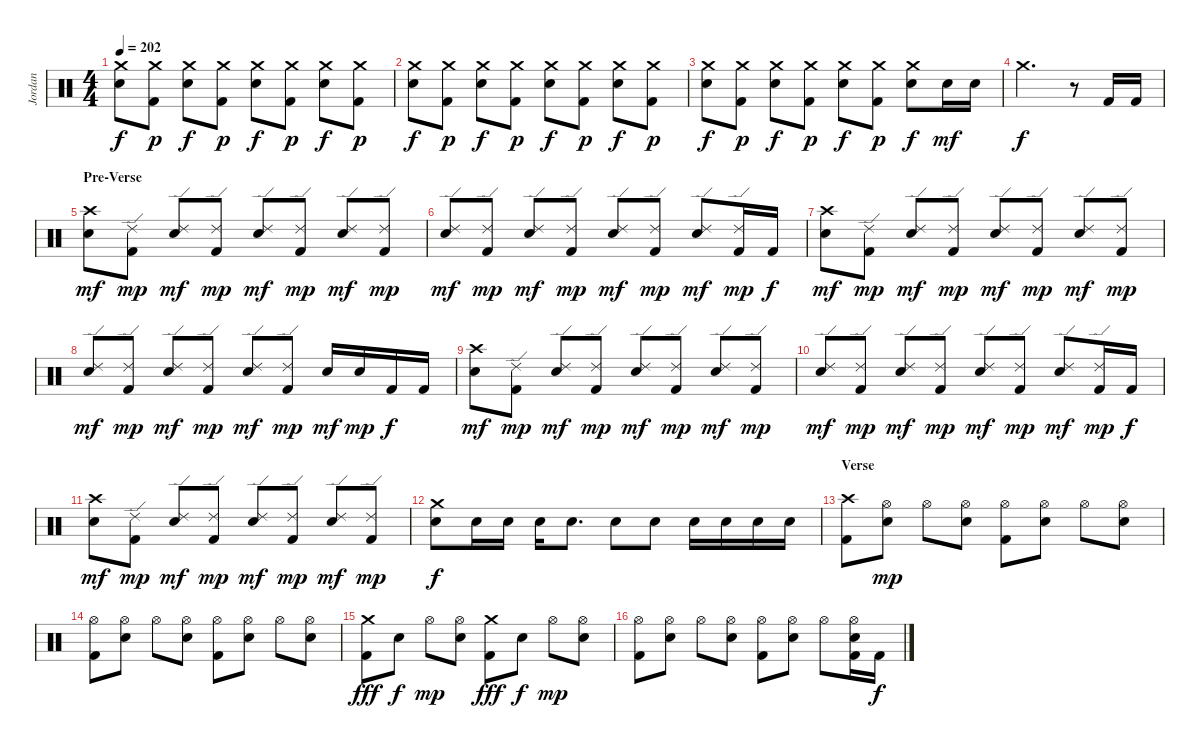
\track ("Jordan" "Jordan") {instrument percussion}
\staff {score}
\articulation defaults
\ts (4 4)
\tempo 202
\clef neutral
\ks c
("Crash medium (hit)" "Electric Snare (hit)").8{dy f} ("Crash medium (hit)" "Kick (hit) 2").8{dy p} ("Crash medium (hit)" "Electric Snare (hit)").8{dy f} ("Crash medium (hit)" "Kick (hit) 2").8{dy p} ("Crash medium (hit)" "Electric Snare (hit)").8{dy f} ("Crash medium (hit)" "Kick (hit) 2").8{dy p} ("Crash medium (hit)" "Electric Snare (hit)").8{dy f} ("Crash medium (hit)" "Kick (hit) 2").8{dy p} |
("Crash medium (hit)" "Electric Snare (hit)").8{dy f} ("Crash medium (hit)" "Kick (hit) 2").8{dy p} ("Crash medium (hit)" "Electric Snare (hit)").8{dy f} ("Crash medium (hit)" "Kick (hit) 2").8{dy p} ("Crash medium (hit)" "Electric Snare (hit)").8{dy f} ("Crash medium (hit)" "Kick (hit) 2").8{dy p} ("Crash medium (hit)" "Electric Snare (hit)").8{dy f} ("Crash medium (hit)" "Kick (hit) 2").8{dy p} |
("Crash medium (hit)" "Electric Snare (hit)").8{dy f} ("Crash medium (hit)" "Kick (hit) 2").8{dy p} ("Crash medium (hit)" "Electric Snare (hit)").8{dy f} ("Crash medium (hit)" "Kick (hit) 2").8{dy p} ("Crash medium (hit)" "Electric Snare (hit)").8{dy f} ("Crash medium (hit)" "Kick (hit) 2").8{dy p} ("Crash medium (hit)" "Electric Snare (hit)").8{dy f} "Electric Snare (hit)".16{dy mf} "Electric Snare (hit)".16 |
"Crash medium (hit)".2{d dy f} r.8 "Kick (hit) 2".16 "Kick (hit) 2".16 |
\section ("" "Pre-Verse")
("Crash high (hit)" "Electric Snare (hit)").8{dy mf} ("Ride (edge) 2" "Kick (hit) 2").8{dy mp} ("Ride (edge) 2" "Electric Snare (hit)").8{dy mf} ("Ride (edge) 2" "Kick (hit) 2").8{dy mp} ("Ride (edge) 2" "Electric Snare (hit)").8{dy mf} ("Ride (edge) 2" "Kick (hit) 2").8{dy mp} ("Ride (edge) 2" "Electric Snare (hit)").8{dy mf} ("Ride (edge) 2" "Kick (hit) 2").8{dy mp} |
("Ride (edge) 2" "Electric Snare (hit)").8{dy mf} ("Ride (edge) 2" "Kick (hit) 2").8{dy mp} ("Ride (edge) 2" "Electric Snare (hit)").8{dy mf} ("Ride (edge) 2" "Kick (hit) 2").8{dy mp} ("Ride (edge) 2" "Electric Snare (hit)").8{dy mf} ("Ride (edge) 2" "Kick (hit) 2").8{dy mp} ("Ride (edge) 2" "Electric Snare (hit)").8{dy mf} ("Ride (edge) 2" "Kick (hit) 2").16{dy mp} "Kick (hit) 2".16{dy f} |
("Crash high (hit)" "Electric Snare (hit)").8{dy mf} ("Ride (edge) 2" "Kick (hit) 2").8{dy mp} ("Ride (edge) 2" "Electric Snare (hit)").8{dy mf} ("Ride (edge) 2" "Kick (hit) 2").8{dy mp} ("Ride (edge) 2" "Electric Snare (hit)").8{dy mf} ("Ride (edge) 2" "Kick (hit) 2").8{dy mp} ("Ride (edge) 2" "Electric Snare (hit)").8{dy mf} ("Ride (edge) 2" "Kick (hit) 2").8{dy mp} |
("Ride (edge) 2" "Electric Snare (hit)").8{dy mf} ("Ride (edge) 2" "Kick (hit) 2").8{dy mp} ("Ride (edge) 2" "Electric Snare (hit)").8{dy mf} ("Ride (edge) 2" "Kick (hit) 2").8{dy mp} ("Ride (edge) 2" "Electric Snare (hit)").8{dy mf} ("Ride (edge) 2" "Kick (hit) 2").8{dy mp} "Electric Snare (hit)".16{dy mf} "Electric Snare (hit)".16{dy mp} "Kick (hit) 2".16{dy f} "Kick (hit) 2".16 |
("Crash high (hit)" "Electric Snare (hit)").8{dy mf} ("Ride (edge) 2" "Kick (hit) 2").8{dy mp} ("Ride (edge) 2" "Electric Snare (hit)").8{dy mf} ("Ride (edge) 2" "Kick (hit) 2").8{dy mp} ("Ride (edge) 2" "Electric Snare (hit)").8{dy mf} ("Ride (edge) 2" "Kick (hit) 2").8{dy mp} ("Ride (edge) 2" "Electric Snare (hit)").8{dy mf} ("Ride (edge) 2" "Kick (hit) 2").8{dy mp} |
("Ride (edge) 2" "Electric Snare (hit)").8{dy mf} ("Ride (edge) 2" "Kick (hit) 2").8{dy mp} ("Ride (edge) 2" "Electric Snare (hit)").8{dy mf} ("Ride (edge) 2" "Kick (hit) 2").8{dy mp} ("Ride (edge) 2" "Electric Snare (hit)").8{dy mf} ("Ride (edge) 2" "Kick (hit) 2").8{dy mp} ("Ride (edge) 2" "Electric Snare (hit)").8{dy mf} ("Ride (edge) 2" "Kick (hit) 2").16{dy mp} "Kick (hit) 2".16{dy f} |
("Crash high (hit)" "Electric Snare (hit)").8{dy mf} ("Ride (edge) 2" "Kick (hit) 2").8{dy mp} ("Ride (edge) 2" "Electric Snare (hit)").8{dy mf} ("Ride (edge) 2" "Kick (hit) 2").8{dy mp} ("Ride (edge) 2" "Electric Snare (hit)").8{dy mf} ("Ride (edge) 2" "Kick (hit) 2").8{dy mp} ("Ride (edge) 2" "Electric Snare (hit)").8{dy mf} ("Ride (edge) 2" "Kick (hit) 2").8{dy mp} |
("Crash medium (hit)" "Electric Snare (hit)").8{dy f} "Electric Snare (hit)".16 "Electric Snare (hit)".16 "Electric Snare (hit)".16 "Electric Snare (hit)".8{d} "Electric Snare (hit)".8 "Electric Snare (hit)".8 "Electric Snare (hit)".16 "Electric Snare (hit)".16 "Electric Snare (hit)".16 "Electric Snare (hit)".16 |
\section ("" "Verse")
("Crash high (hit)" "Kick (hit) 2").8 ("Hi-Hat (open)" "Electric Snare (hit)").8{dy mp} "Hi-Hat (open)".8 ("Hi-Hat (open)" "Electric Snare (hit)").8 ("Hi-Hat (open)" "Kick (hit) 2").8 ("Hi-Hat (open)" "Electric Snare (hit)").8 "Hi-Hat (open)".8 ("Hi-Hat (open)" "Electric Snare (hit)").8 |
("Hi-Hat (open)" "Kick (hit) 2").8 ("Hi-Hat (open)" "Electric Snare (hit)").8 "Hi-Hat (open)".8 ("Hi-Hat (open)" "Electric Snare (hit)").8 ("Hi-Hat (open)" "Kick (hit) 2").8 ("Hi-Hat (open)" "Electric Snare (hit)").8 "Hi-Hat (open)".8 ("Hi-Hat (open)" "Electric Snare (hit)").8 |
("Crash medium (hit)" "Kick (hit) 2").8{dy fff} "Electric Snare (hit)".8{dy f} "Hi-Hat (open)".8{dy mp} ("Hi-Hat (open)" "Electric Snare (hit)").8 ("Crash medium (hit)" "Kick (hit) 2").8{dy fff} "Electric Snare (hit)".8{dy f} "Hi-Hat (open)".8{dy mp} ("Hi-Hat (open)" "Electric Snare (hit)").8 |
("Hi-Hat (open)" "Kick (hit) 2").8 ("Hi-Hat (open)" "Electric Snare (hit)").8 "Hi-Hat (open)".8 ("Hi-Hat (open)" "Electric Snare (hit)").8 ("Hi-Hat (open)" "Kick (hit) 2").8 ("Hi-Hat (open)" "Electric Snare (hit)").8 "Hi-Hat (open)".8 ("Hi-Hat (open)" "Electric Snare (hit)" "Kick (hit) 2").16 "Kick (hit) 2".16{dy f}
